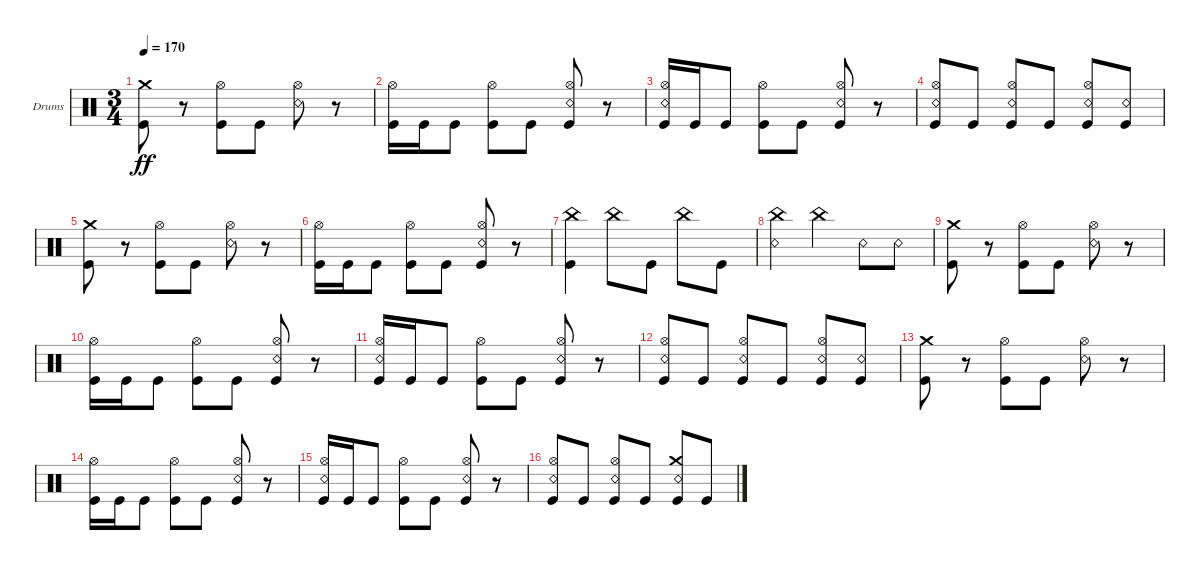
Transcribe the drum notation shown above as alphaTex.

\bracketExtendMode groupsimilarinstruments
\firstSystemTrackNameOrientation horizontal
\otherSystemsTrackNameOrientation horizontal
\track ("Kaleb - Drums" "Drums") {instrument percussion}
\staff {score}
\articulation defaults
\ts (3 4)
\tempo 170
\clef neutral
\ks c
("Kick (hit)" "Crash medium (hit)").8{dy ff} r.8 ("Kick (hit)" "Hi-Hat (open)").8 "Kick (hit)".8 ("Snare (rim shot)" "Hi-Hat (open)").8 r.8 |
("Kick (hit)" "Hi-Hat (open)").16 "Kick (hit)".16 "Kick (hit)".8 ("Kick (hit)" "Hi-Hat (open)").8 "Kick (hit)".8 ("Kick (hit)" "Hi-Hat (open)" "Snare (rim shot)").8 r.8 |
("Kick (hit)" "Hi-Hat (open)" "Snare (rim shot)").16 "Kick (hit)".16 "Kick (hit)".8 ("Kick (hit)" "Hi-Hat (open)").8 "Kick (hit)".8 ("Kick (hit)" "Hi-Hat (open)" "Snare (rim shot)").8 r.8 |
("Kick (hit)" "Snare (rim shot)" "Hi-Hat (open)").8 "Kick (hit)".8 ("Kick (hit)" "Snare (rim shot)" "Hi-Hat (open)").8 "Kick (hit)".8 ("Kick (hit)" "Snare (rim shot)" "Hi-Hat (open)").8 ("Kick (hit)" "Snare (rim shot)").8 |
("Kick (hit)" "Crash medium (hit)").8 r.8 ("Kick (hit)" "Hi-Hat (open)").8 "Kick (hit)".8 ("Snare (rim shot)" "Hi-Hat (open)").8 r.8 |
("Kick (hit)" "Hi-Hat (open)").16 "Kick (hit)".16 "Kick (hit)".8 ("Kick (hit)" "Hi-Hat (open)").8 "Kick (hit)".8 ("Kick (hit)" "Hi-Hat (open)" "Snare (rim shot)").8 r.8 |
("China (hit)" "Kick (hit)").4 "China (hit)".8 "Kick (hit)".8 "China (hit)".8 "Kick (hit)".8 |
("China (hit)" "Snare (rim shot)").4 "China (hit)".4 "Snare (rim shot)".8 "Snare (rim shot)".8 |
("Kick (hit)" "Crash medium (hit)").8 r.8 ("Kick (hit)" "Hi-Hat (open)").8 "Kick (hit)".8 ("Snare (rim shot)" "Hi-Hat (open)").8 r.8 |
("Kick (hit)" "Hi-Hat (open)").16 "Kick (hit)".16 "Kick (hit)".8 ("Kick (hit)" "Hi-Hat (open)").8 "Kick (hit)".8 ("Kick (hit)" "Hi-Hat (open)" "Snare (rim shot)").8 r.8 |
("Kick (hit)" "Hi-Hat (open)" "Snare (rim shot)").16 "Kick (hit)".16 "Kick (hit)".8 ("Kick (hit)" "Hi-Hat (open)").8 "Kick (hit)".8 ("Kick (hit)" "Hi-Hat (open)" "Snare (rim shot)").8 r.8 |
("Kick (hit)" "Snare (rim shot)" "Hi-Hat (open)").8 "Kick (hit)".8 ("Kick (hit)" "Snare (rim shot)" "Hi-Hat (open)").8 "Kick (hit)".8 ("Kick (hit)" "Snare (rim shot)" "Hi-Hat (open)").8 ("Kick (hit)" "Snare (rim shot)").8 |
("Kick (hit)" "Crash medium (hit)").8 r.8 ("Kick (hit)" "Hi-Hat (open)").8 "Kick (hit)".8 ("Snare (rim shot)" "Hi-Hat (open)").8 r.8 |
("Kick (hit)" "Hi-Hat (open)").16 "Kick (hit)".16 "Kick (hit)".8 ("Kick (hit)" "Hi-Hat (open)").8 "Kick (hit)".8 ("Kick (hit)" "Hi-Hat (open)" "Snare (rim shot)").8 r.8 |
("Kick (hit)" "Hi-Hat (open)" "Snare (rim shot)").16 "Kick (hit)".16 "Kick (hit)".8 ("Kick (hit)" "Hi-Hat (open)").8 "Kick (hit)".8 ("Kick (hit)" "Hi-Hat (open)" "Snare (rim shot)").8 r.8 |
("Kick (hit)" "Snare (rim shot)" "Hi-Hat (open)").8 "Kick (hit)".8 ("Kick (hit)" "Snare (rim shot)" "Hi-Hat (open)").8 "Kick (hit)".8 ("Kick (hit)" "Snare (rim shot)" "Crash medium (hit)").8 "Kick (hit)".8
